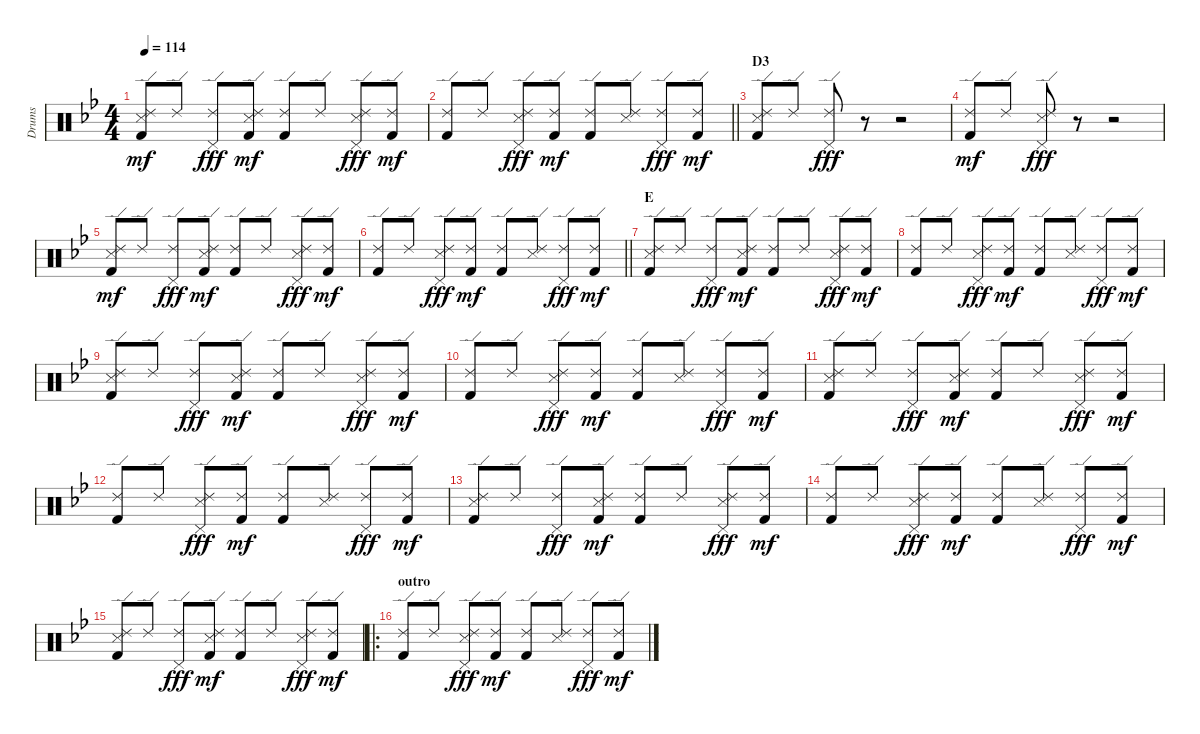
\track ("Drums" "Drums") {instrument percussion}
\staff {score}
\articulation defaults
\ts (4 4)
\tempo 114
\clef neutral
\ks gminor
("Ride (edge) 2" "Snare (side stick) 3" "Kick (hit) 2").8{dy mf} "Ride (edge) 2".8 ("Ride (edge) 2" "Pedal Hi-Hat (hit)").8{dy fff} ("Ride (edge) 2" "Snare (side stick) 3" "Kick (hit) 2").8{dy mf} ("Ride (edge) 2" "Kick (hit) 2").8 "Ride (edge) 2".8 ("Ride (edge) 2" "Pedal Hi-Hat (hit)" "Snare (side stick) 3").8{dy fff} ("Ride (edge) 2" "Kick (hit) 2").8{dy mf} |
\barLineRight lightlight
("Ride (edge) 2" "Kick (hit) 2").8 "Ride (edge) 2".8 ("Ride (edge) 2" "Pedal Hi-Hat (hit)" "Snare (side stick) 3").8{dy fff} ("Ride (edge) 2" "Kick (hit) 2").8{dy mf} ("Ride (edge) 2" "Kick (hit) 2").8 ("Ride (edge) 2" "Snare (side stick) 3").8 ("Ride (edge) 2" "Pedal Hi-Hat (hit)").8{dy fff} ("Ride (edge) 2" "Kick (hit) 2").8{dy mf} |
\section ("" "D3")
("Ride (edge) 2" "Snare (side stick) 3" "Kick (hit) 2").8 "Ride (edge) 2".8 ("Ride (edge) 2" "Pedal Hi-Hat (hit)").8{dy fff} r.8 r.2 |
("Ride (edge) 2" "Kick (hit) 2").8{dy mf} "Ride (edge) 2".8 ("Ride (edge) 2" "Pedal Hi-Hat (hit)" "Snare (side stick) 3").8{dy fff} r.8 r.2 |
("Ride (edge) 2" "Snare (side stick) 3" "Kick (hit) 2").8{dy mf} "Ride (edge) 2".8 ("Ride (edge) 2" "Pedal Hi-Hat (hit)").8{dy fff} ("Ride (edge) 2" "Snare (side stick) 3" "Kick (hit) 2").8{dy mf} ("Ride (edge) 2" "Kick (hit) 2").8 "Ride (edge) 2".8 ("Ride (edge) 2" "Pedal Hi-Hat (hit)" "Snare (side stick) 3").8{dy fff} ("Ride (edge) 2" "Kick (hit) 2").8{dy mf} |
\barLineRight lightlight
("Ride (edge) 2" "Kick (hit) 2").8 "Ride (edge) 2".8 ("Ride (edge) 2" "Pedal Hi-Hat (hit)" "Snare (side stick) 3").8{dy fff} ("Ride (edge) 2" "Kick (hit) 2").8{dy mf} ("Ride (edge) 2" "Kick (hit) 2").8 ("Ride (edge) 2" "Snare (side stick) 3").8 ("Ride (edge) 2" "Pedal Hi-Hat (hit)").8{dy fff} ("Ride (edge) 2" "Kick (hit) 2").8{dy mf} |
\section ("" "E")
("Ride (edge) 2" "Snare (side stick) 3" "Kick (hit) 2").8 "Ride (edge) 2".8 ("Ride (edge) 2" "Pedal Hi-Hat (hit)").8{dy fff} ("Ride (edge) 2" "Snare (side stick) 3" "Kick (hit) 2").8{dy mf} ("Ride (edge) 2" "Kick (hit) 2").8 "Ride (edge) 2".8 ("Ride (edge) 2" "Pedal Hi-Hat (hit)" "Snare (side stick) 3").8{dy fff} ("Ride (edge) 2" "Kick (hit) 2").8{dy mf} |
("Ride (edge) 2" "Kick (hit) 2").8 "Ride (edge) 2".8 ("Ride (edge) 2" "Pedal Hi-Hat (hit)" "Snare (side stick) 3").8{dy fff} ("Ride (edge) 2" "Kick (hit) 2").8{dy mf} ("Ride (edge) 2" "Kick (hit) 2").8 ("Ride (edge) 2" "Snare (side stick) 3").8 ("Ride (edge) 2" "Pedal Hi-Hat (hit)").8{dy fff} ("Ride (edge) 2" "Kick (hit) 2").8{dy mf} |
("Ride (edge) 2" "Snare (side stick) 3" "Kick (hit) 2").8 "Ride (edge) 2".8 ("Ride (edge) 2" "Pedal Hi-Hat (hit)").8{dy fff} ("Ride (edge) 2" "Snare (side stick) 3" "Kick (hit) 2").8{dy mf} ("Ride (edge) 2" "Kick (hit) 2").8 "Ride (edge) 2".8 ("Ride (edge) 2" "Pedal Hi-Hat (hit)" "Snare (side stick) 3").8{dy fff} ("Ride (edge) 2" "Kick (hit) 2").8{dy mf} |
("Ride (edge) 2" "Kick (hit) 2").8 "Ride (edge) 2".8 ("Ride (edge) 2" "Pedal Hi-Hat (hit)" "Snare (side stick) 3").8{dy fff} ("Ride (edge) 2" "Kick (hit) 2").8{dy mf} ("Ride (edge) 2" "Kick (hit) 2").8 ("Ride (edge) 2" "Snare (side stick) 3").8 ("Ride (edge) 2" "Pedal Hi-Hat (hit)").8{dy fff} ("Ride (edge) 2" "Kick (hit) 2").8{dy mf} |
("Ride (edge) 2" "Snare (side stick) 3" "Kick (hit) 2").8 "Ride (edge) 2".8 ("Ride (edge) 2" "Pedal Hi-Hat (hit)").8{dy fff} ("Ride (edge) 2" "Snare (side stick) 3" "Kick (hit) 2").8{dy mf} ("Ride (edge) 2" "Kick (hit) 2").8 "Ride (edge) 2".8 ("Ride (edge) 2" "Pedal Hi-Hat (hit)" "Snare (side stick) 3").8{dy fff} ("Ride (edge) 2" "Kick (hit) 2").8{dy mf} |
("Ride (edge) 2" "Kick (hit) 2").8 "Ride (edge) 2".8 ("Ride (edge) 2" "Pedal Hi-Hat (hit)" "Snare (side stick) 3").8{dy fff} ("Ride (edge) 2" "Kick (hit) 2").8{dy mf} ("Ride (edge) 2" "Kick (hit) 2").8 ("Ride (edge) 2" "Snare (side stick) 3").8 ("Ride (edge) 2" "Pedal Hi-Hat (hit)").8{dy fff} ("Ride (edge) 2" "Kick (hit) 2").8{dy mf} |
("Ride (edge) 2" "Snare (side stick) 3" "Kick (hit) 2").8 "Ride (edge) 2".8 ("Ride (edge) 2" "Pedal Hi-Hat (hit)").8{dy fff} ("Ride (edge) 2" "Snare (side stick) 3" "Kick (hit) 2").8{dy mf} ("Ride (edge) 2" "Kick (hit) 2").8 "Ride (edge) 2".8 ("Ride (edge) 2" "Pedal Hi-Hat (hit)" "Snare (side stick) 3").8{dy fff} ("Ride (edge) 2" "Kick (hit) 2").8{dy mf} |
("Ride (edge) 2" "Kick (hit) 2").8 "Ride (edge) 2".8 ("Ride (edge) 2" "Pedal Hi-Hat (hit)" "Snare (side stick) 3").8{dy fff} ("Ride (edge) 2" "Kick (hit) 2").8{dy mf} ("Ride (edge) 2" "Kick (hit) 2").8 ("Ride (edge) 2" "Snare (side stick) 3").8 ("Ride (edge) 2" "Pedal Hi-Hat (hit)").8{dy fff} ("Ride (edge) 2" "Kick (hit) 2").8{dy mf} |
("Ride (edge) 2" "Snare (side stick) 3" "Kick (hit) 2").8 "Ride (edge) 2".8 ("Ride (edge) 2" "Pedal Hi-Hat (hit)").8{dy fff} ("Ride (edge) 2" "Snare (side stick) 3" "Kick (hit) 2").8{dy mf} ("Ride (edge) 2" "Kick (hit) 2").8 "Ride (edge) 2".8 ("Ride (edge) 2" "Pedal Hi-Hat (hit)" "Snare (side stick) 3").8{dy fff} ("Ride (edge) 2" "Kick (hit) 2").8{dy mf} |
\ro
\section ("" "outro")
("Ride (edge) 2" "Kick (hit) 2").8 "Ride (edge) 2".8 ("Ride (edge) 2" "Pedal Hi-Hat (hit)" "Snare (side stick) 3").8{dy fff} ("Ride (edge) 2" "Kick (hit) 2").8{dy mf} ("Ride (edge) 2" "Kick (hit) 2").8 ("Ride (edge) 2" "Snare (side stick) 3").8 ("Ride (edge) 2" "Pedal Hi-Hat (hit)").8{dy fff} ("Ride (edge) 2" "Kick (hit) 2").8{dy mf}
